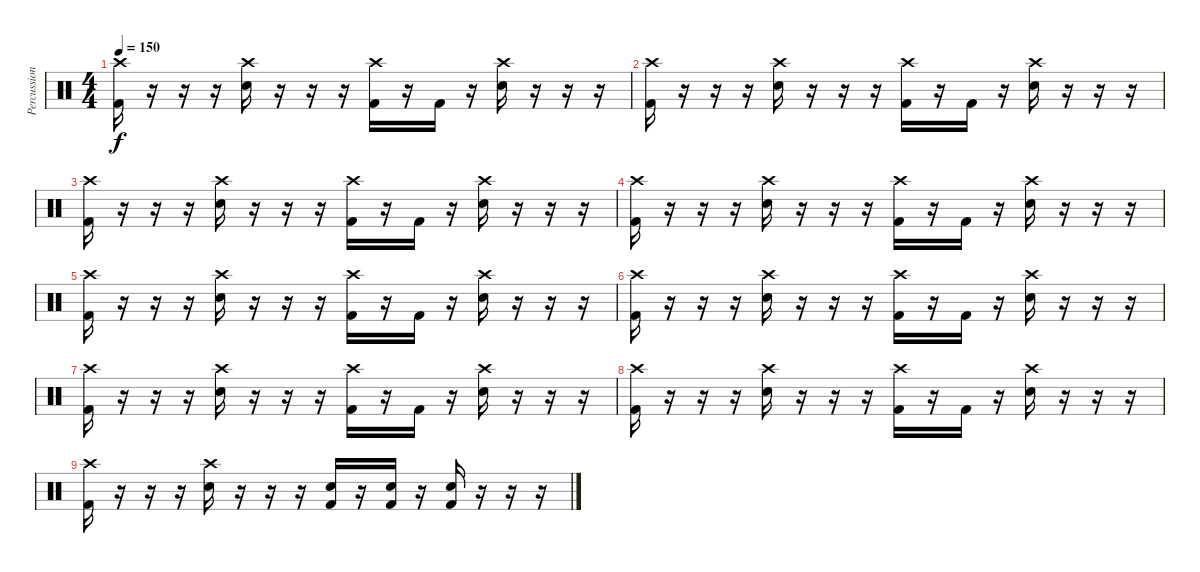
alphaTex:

\track ("Percussion" "Percussion") {instrument percussion}
\staff {score}
\articulation defaults
\ts (4 4)
\tempo 150
\clef neutral
\ks c
("Crash high (hit)" "Kick (hit) 2").16{dy f} r.16 r.16 r.16 ("Crash high (hit)" "Electric Snare (hit)").16 r.16 r.16 r.16 ("Crash high (hit)" "Kick (hit) 2").16 r.16 "Kick (hit) 2".16 r.16 ("Crash high (hit)" "Electric Snare (hit)").16 r.16 r.16 r.16 |
("Crash high (hit)" "Kick (hit) 2").16 r.16 r.16 r.16 ("Crash high (hit)" "Electric Snare (hit)").16 r.16 r.16 r.16 ("Crash high (hit)" "Kick (hit) 2").16 r.16 "Kick (hit) 2".16 r.16 ("Crash high (hit)" "Electric Snare (hit)").16 r.16 r.16 r.16 |
("Crash high (hit)" "Kick (hit) 2").16 r.16 r.16 r.16 ("Crash high (hit)" "Electric Snare (hit)").16 r.16 r.16 r.16 ("Crash high (hit)" "Kick (hit) 2").16 r.16 "Kick (hit) 2".16 r.16 ("Crash high (hit)" "Electric Snare (hit)").16 r.16 r.16 r.16 |
("Crash high (hit)" "Kick (hit) 2").16 r.16 r.16 r.16 ("Crash high (hit)" "Electric Snare (hit)").16 r.16 r.16 r.16 ("Crash high (hit)" "Kick (hit) 2").16 r.16 "Kick (hit) 2".16 r.16 ("Crash high (hit)" "Electric Snare (hit)").16 r.16 r.16 r.16 |
("Crash high (hit)" "Kick (hit) 2").16 r.16 r.16 r.16 ("Crash high (hit)" "Electric Snare (hit)").16 r.16 r.16 r.16 ("Crash high (hit)" "Kick (hit) 2").16 r.16 "Kick (hit) 2".16 r.16 ("Crash high (hit)" "Electric Snare (hit)").16 r.16 r.16 r.16 |
("Crash high (hit)" "Kick (hit) 2").16 r.16 r.16 r.16 ("Crash high (hit)" "Electric Snare (hit)").16 r.16 r.16 r.16 ("Crash high (hit)" "Kick (hit) 2").16 r.16 "Kick (hit) 2".16 r.16 ("Crash high (hit)" "Electric Snare (hit)").16 r.16 r.16 r.16 |
("Crash high (hit)" "Kick (hit) 2").16 r.16 r.16 r.16 ("Crash high (hit)" "Electric Snare (hit)").16 r.16 r.16 r.16 ("Crash high (hit)" "Kick (hit) 2").16 r.16 "Kick (hit) 2".16 r.16 ("Crash high (hit)" "Electric Snare (hit)").16 r.16 r.16 r.16 |
("Crash high (hit)" "Kick (hit) 2").16 r.16 r.16 r.16 ("Crash high (hit)" "Electric Snare (hit)").16 r.16 r.16 r.16 ("Crash high (hit)" "Kick (hit) 2").16 r.16 "Kick (hit) 2".16 r.16 ("Crash high (hit)" "Electric Snare (hit)").16 r.16 r.16 r.16 |
("Crash high (hit)" "Kick (hit) 2").16 r.16 r.16 r.16 ("Crash high (hit)" "Electric Snare (hit)").16 r.16 r.16 r.16 ("Electric Snare (hit)" "Kick (hit) 2").16 r.16 ("Electric Snare (hit)" "Kick (hit) 2").16 r.16 ("Electric Snare (hit)" "Kick (hit) 2").16 r.16 r.16 r.16
